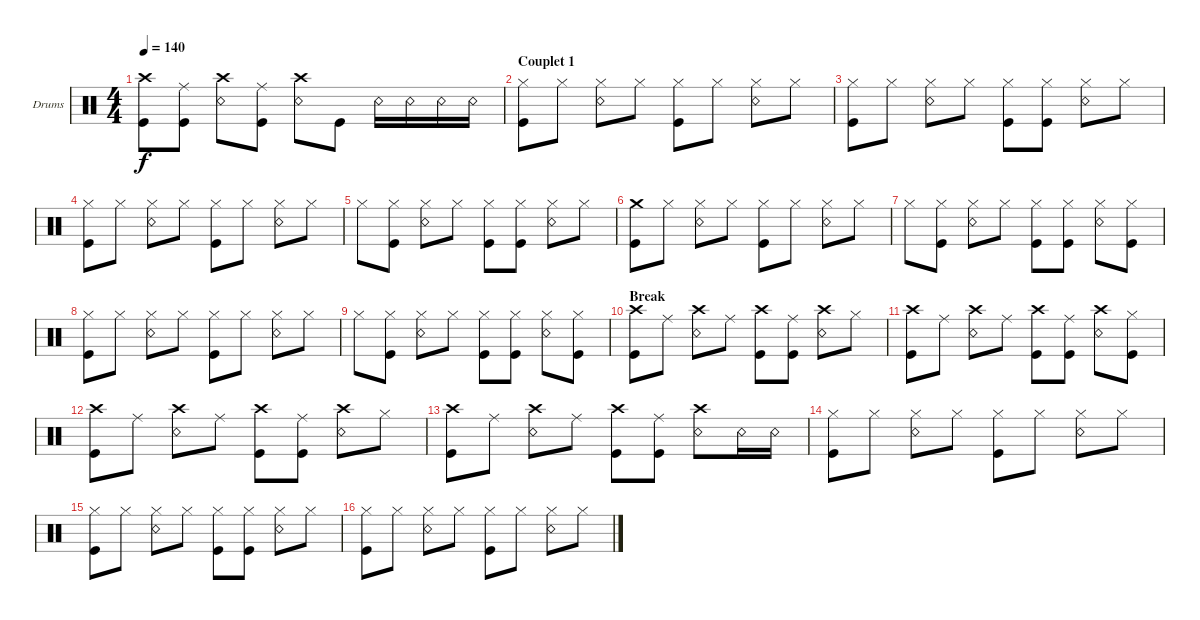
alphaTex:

\bracketExtendMode groupsimilarinstruments
\firstSystemTrackNameOrientation horizontal
\otherSystemsTrackNameOrientation horizontal
\track ("Drumkit" "Drums") {instrument percussion}
\staff {score}
\articulation defaults
\ts (4 4)
\tempo 140
\clef neutral
\ks c
("Kick (hit)" "Crash high (hit)").8{dy f} ("Ride (middle)" "Kick (hit)").8 ("Crash high (hit)" "Snare (rim shot)").8 ("Ride (middle)" "Kick (hit)").8 ("Crash high (hit)" "Snare (rim shot)").8 "Kick (hit)".8 "Snare (rim shot)".16 "Snare (rim shot)".16 "Snare (rim shot)".16 "Snare (rim shot)".16 |
\section ("" "Couplet 1")
("Kick (hit)" "Hi-Hat (closed)").8 "Hi-Hat (closed)".8 ("Hi-Hat (closed)" "Snare (rim shot)").8 "Hi-Hat (closed)".8 ("Hi-Hat (closed)" "Kick (hit)").8 "Hi-Hat (closed)".8 ("Hi-Hat (closed)" "Snare (rim shot)").8 "Hi-Hat (closed)".8 |
("Kick (hit)" "Hi-Hat (closed)").8 "Hi-Hat (closed)".8 ("Hi-Hat (closed)" "Snare (rim shot)").8 "Hi-Hat (closed)".8 ("Hi-Hat (closed)" "Kick (hit)").8 ("Hi-Hat (closed)" "Kick (hit)").8 ("Hi-Hat (closed)" "Snare (rim shot)").8 "Hi-Hat (closed)".8 |
("Kick (hit)" "Hi-Hat (closed)").8 "Hi-Hat (closed)".8 ("Hi-Hat (closed)" "Snare (rim shot)").8 "Hi-Hat (closed)".8 ("Hi-Hat (closed)" "Kick (hit)").8 "Hi-Hat (closed)".8 ("Hi-Hat (closed)" "Snare (rim shot)").8 "Hi-Hat (closed)".8 |
"Hi-Hat (closed)".8 ("Hi-Hat (closed)" "Kick (hit)").8 ("Hi-Hat (closed)" "Snare (rim shot)").8 "Hi-Hat (closed)".8 ("Hi-Hat (closed)" "Kick (hit)").8 ("Hi-Hat (closed)" "Kick (hit)").8 ("Hi-Hat (closed)" "Snare (rim shot)").8 "Hi-Hat (closed)".8 |
("Kick (hit)" "Crash medium (hit)").8 "Hi-Hat (closed)".8 ("Hi-Hat (closed)" "Snare (rim shot)").8 "Hi-Hat (closed)".8 ("Hi-Hat (closed)" "Kick (hit)").8 "Hi-Hat (closed)".8 ("Hi-Hat (closed)" "Snare (rim shot)").8 "Hi-Hat (closed)".8 |
"Hi-Hat (closed)".8 ("Hi-Hat (closed)" "Kick (hit)").8 ("Hi-Hat (closed)" "Snare (rim shot)").8 "Hi-Hat (closed)".8 ("Hi-Hat (closed)" "Kick (hit)").8 ("Hi-Hat (closed)" "Kick (hit)").8 ("Hi-Hat (closed)" "Snare (rim shot)").8 ("Hi-Hat (closed)" "Kick (hit)").8 |
("Kick (hit)" "Hi-Hat (closed)").8 "Hi-Hat (closed)".8 ("Hi-Hat (closed)" "Snare (rim shot)").8 "Hi-Hat (closed)".8 ("Hi-Hat (closed)" "Kick (hit)").8 "Hi-Hat (closed)".8 ("Hi-Hat (closed)" "Snare (rim shot)").8 "Hi-Hat (closed)".8 |
"Hi-Hat (closed)".8 ("Hi-Hat (closed)" "Kick (hit)").8 ("Hi-Hat (closed)" "Snare (rim shot)").8 "Hi-Hat (closed)".8 ("Hi-Hat (closed)" "Kick (hit)").8 ("Hi-Hat (closed)" "Kick (hit)").8 ("Hi-Hat (closed)" "Snare (rim shot)").8 ("Hi-Hat (closed)" "Kick (hit)").8 |
\section ("" "Break")
("Kick (hit)" "Crash high (hit)").8 "Ride (middle)".8 ("Crash high (hit)" "Snare (rim shot)").8 "Ride (middle)".8 ("Crash high (hit)" "Kick (hit)").8 ("Kick (hit)" "Ride (middle)").8 ("Crash high (hit)" "Snare (rim shot)").8 "Hi-Hat (closed)".8 |
("Kick (hit)" "Crash high (hit)").8 "Ride (middle)".8 ("Crash high (hit)" "Snare (rim shot)").8 "Ride (middle)".8 ("Crash high (hit)" "Kick (hit)").8 ("Kick (hit)" "Ride (middle)").8 ("Crash high (hit)" "Snare (rim shot)").8 ("Hi-Hat (closed)" "Kick (hit)").8 |
("Kick (hit)" "Crash high (hit)").8 "Ride (middle)".8 ("Crash high (hit)" "Snare (rim shot)").8 "Ride (middle)".8 ("Crash high (hit)" "Kick (hit)").8 ("Kick (hit)" "Ride (middle)").8 ("Crash high (hit)" "Snare (rim shot)").8 "Hi-Hat (closed)".8 |
("Kick (hit)" "Crash high (hit)").8 "Ride (middle)".8 ("Crash high (hit)" "Snare (rim shot)").8 "Ride (middle)".8 ("Crash high (hit)" "Kick (hit)").8 ("Kick (hit)" "Ride (middle)").8 ("Crash high (hit)" "Snare (rim shot)").8 "Snare (rim shot)".16 "Snare (rim shot)".16 |
("Kick (hit)" "Hi-Hat (closed)").8 "Hi-Hat (closed)".8 ("Hi-Hat (closed)" "Snare (rim shot)").8 "Hi-Hat (closed)".8 ("Hi-Hat (closed)" "Kick (hit)").8 "Hi-Hat (closed)".8 ("Hi-Hat (closed)" "Snare (rim shot)").8 "Hi-Hat (closed)".8 |
("Kick (hit)" "Hi-Hat (closed)").8 "Hi-Hat (closed)".8 ("Hi-Hat (closed)" "Snare (rim shot)").8 "Hi-Hat (closed)".8 ("Hi-Hat (closed)" "Kick (hit)").8 ("Hi-Hat (closed)" "Kick (hit)").8 ("Hi-Hat (closed)" "Snare (rim shot)").8 "Hi-Hat (closed)".8 |
("Kick (hit)" "Hi-Hat (closed)").8 "Hi-Hat (closed)".8 ("Hi-Hat (closed)" "Snare (rim shot)").8 "Hi-Hat (closed)".8 ("Hi-Hat (closed)" "Kick (hit)").8 "Hi-Hat (closed)".8 ("Hi-Hat (closed)" "Snare (rim shot)").8 "Hi-Hat (closed)".8
